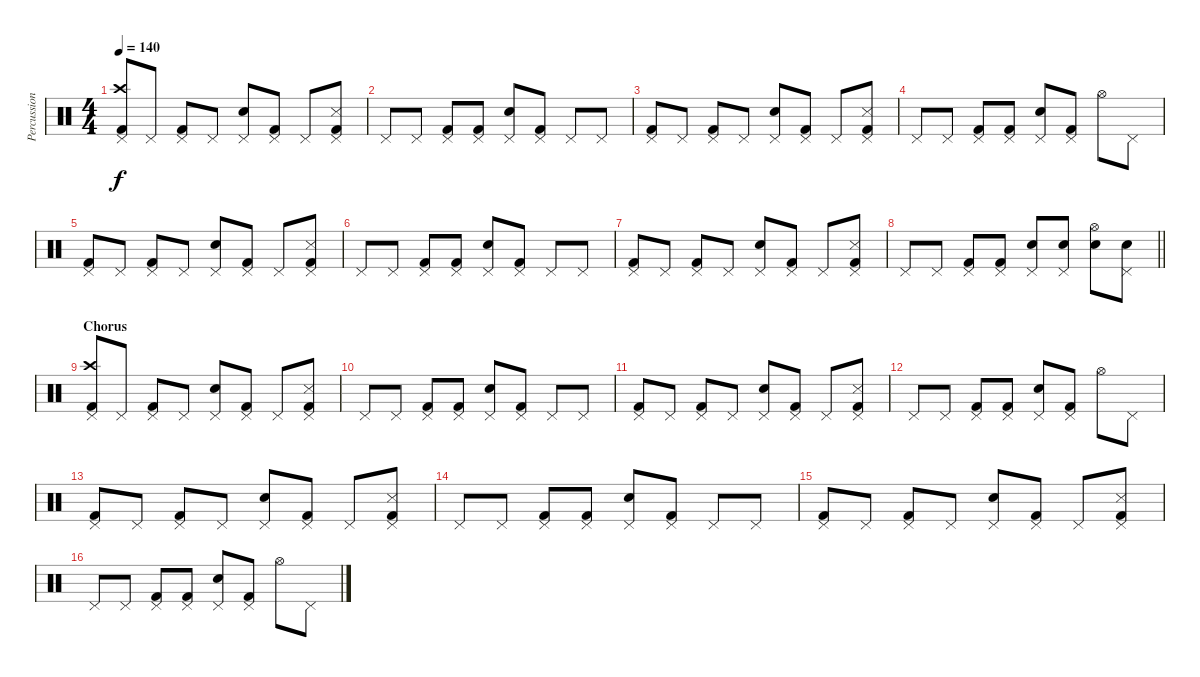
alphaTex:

\track ("Percussion" "Percussion") {instrument percussion}
\staff {score}
\articulation defaults
\ts (4 4)
\tempo 140
\clef neutral
\ks c
("Pedal Hi-Hat (hit)" "Crash high (hit)" "Kick (hit) 2").8{dy f} "Pedal Hi-Hat (hit)".8 ("Pedal Hi-Hat (hit)" "Kick (hit) 2").8 "Pedal Hi-Hat (hit)".8 ("Pedal Hi-Hat (hit)" "Electric Snare (hit)").8 ("Pedal Hi-Hat (hit)" "Kick (hit) 2").8 "Pedal Hi-Hat (hit)".8 ("Snare (side stick) 3" "Pedal Hi-Hat (hit)" "Kick (hit) 2").8 |
"Pedal Hi-Hat (hit)".8 "Pedal Hi-Hat (hit)".8 ("Pedal Hi-Hat (hit)" "Kick (hit) 2").8 ("Pedal Hi-Hat (hit)" "Kick (hit) 2").8 ("Electric Snare (hit)" "Pedal Hi-Hat (hit)").8 ("Pedal Hi-Hat (hit)" "Kick (hit) 2").8 "Pedal Hi-Hat (hit)".8 "Pedal Hi-Hat (hit)".8 |
("Pedal Hi-Hat (hit)" "Kick (hit) 2").8 "Pedal Hi-Hat (hit)".8 ("Pedal Hi-Hat (hit)" "Kick (hit) 2").8 "Pedal Hi-Hat (hit)".8 ("Pedal Hi-Hat (hit)" "Electric Snare (hit)").8 ("Pedal Hi-Hat (hit)" "Kick (hit) 2").8 "Pedal Hi-Hat (hit)".8 ("Snare (side stick) 3" "Pedal Hi-Hat (hit)" "Kick (hit) 2").8 |
"Pedal Hi-Hat (hit)".8 "Pedal Hi-Hat (hit)".8 ("Pedal Hi-Hat (hit)" "Kick (hit) 2").8 ("Pedal Hi-Hat (hit)" "Kick (hit) 2").8 ("Electric Snare (hit)" "Pedal Hi-Hat (hit)").8 ("Pedal Hi-Hat (hit)" "Kick (hit) 2").8 "Hi-Hat (open)".8 "Pedal Hi-Hat (hit)".8 |
("Pedal Hi-Hat (hit)" "Kick (hit) 2").8 "Pedal Hi-Hat (hit)".8 ("Pedal Hi-Hat (hit)" "Kick (hit) 2").8 "Pedal Hi-Hat (hit)".8 ("Pedal Hi-Hat (hit)" "Electric Snare (hit)").8 ("Pedal Hi-Hat (hit)" "Kick (hit) 2").8 "Pedal Hi-Hat (hit)".8 ("Snare (side stick) 3" "Pedal Hi-Hat (hit)" "Kick (hit) 2").8 |
"Pedal Hi-Hat (hit)".8 "Pedal Hi-Hat (hit)".8 ("Pedal Hi-Hat (hit)" "Kick (hit) 2").8 ("Pedal Hi-Hat (hit)" "Kick (hit) 2").8 ("Electric Snare (hit)" "Pedal Hi-Hat (hit)").8 ("Pedal Hi-Hat (hit)" "Kick (hit) 2").8 "Pedal Hi-Hat (hit)".8 "Pedal Hi-Hat (hit)".8 |
("Pedal Hi-Hat (hit)" "Kick (hit) 2").8 "Pedal Hi-Hat (hit)".8 ("Pedal Hi-Hat (hit)" "Kick (hit) 2").8 "Pedal Hi-Hat (hit)".8 ("Pedal Hi-Hat (hit)" "Electric Snare (hit)").8 ("Pedal Hi-Hat (hit)" "Kick (hit) 2").8 "Pedal Hi-Hat (hit)".8 ("Snare (side stick) 3" "Pedal Hi-Hat (hit)" "Kick (hit) 2").8 |
\barLineRight lightlight "Pedal Hi-Hat (hit)".8 "Pedal Hi-Hat (hit)".8
("Pedal Hi-Hat (hit)" "Kick (hit) 2").8 ("Pedal Hi-Hat (hit)" "Kick (hit) 2").8 ("Electric Snare (hit)" "Pedal Hi-Hat (hit)").8 ("Pedal Hi-Hat (hit)" "Electric Snare (hit)").8 ("Hi-Hat (open)" "Electric Snare (hit)").8 ("Pedal Hi-Hat (hit)" "Electric Snare (hit)").8 |
\section ("" "Chorus")
("Pedal Hi-Hat (hit)" "Crash high (hit)" "Kick (hit) 2").8 "Pedal Hi-Hat (hit)".8 ("Pedal Hi-Hat (hit)" "Kick (hit) 2").8 "Pedal Hi-Hat (hit)".8 ("Pedal Hi-Hat (hit)" "Electric Snare (hit)").8 ("Pedal Hi-Hat (hit)" "Kick (hit) 2").8 "Pedal Hi-Hat (hit)".8 ("Snare (side stick) 3" "Pedal Hi-Hat (hit)" "Kick (hit) 2").8 |
"Pedal Hi-Hat (hit)".8 "Pedal Hi-Hat (hit)".8 ("Pedal Hi-Hat (hit)" "Kick (hit) 2").8 ("Pedal Hi-Hat (hit)" "Kick (hit) 2").8 ("Electric Snare (hit)" "Pedal Hi-Hat (hit)").8 ("Pedal Hi-Hat (hit)" "Kick (hit) 2").8 "Pedal Hi-Hat (hit)".8 "Pedal Hi-Hat (hit)".8 |
("Pedal Hi-Hat (hit)" "Kick (hit) 2").8 "Pedal Hi-Hat (hit)".8 ("Pedal Hi-Hat (hit)" "Kick (hit) 2").8 "Pedal Hi-Hat (hit)".8 ("Pedal Hi-Hat (hit)" "Electric Snare (hit)").8 ("Pedal Hi-Hat (hit)" "Kick (hit) 2").8 "Pedal Hi-Hat (hit)".8 ("Snare (side stick) 3" "Pedal Hi-Hat (hit)" "Kick (hit) 2").8 |
"Pedal Hi-Hat (hit)".8 "Pedal Hi-Hat (hit)".8 ("Pedal Hi-Hat (hit)" "Kick (hit) 2").8 ("Pedal Hi-Hat (hit)" "Kick (hit) 2").8 ("Electric Snare (hit)" "Pedal Hi-Hat (hit)").8 ("Pedal Hi-Hat (hit)" "Kick (hit) 2").8 "Hi-Hat (open)".8 "Pedal Hi-Hat (hit)".8 |
("Pedal Hi-Hat (hit)" "Kick (hit) 2").8 "Pedal Hi-Hat (hit)".8 ("Pedal Hi-Hat (hit)" "Kick (hit) 2").8 "Pedal Hi-Hat (hit)".8 ("Pedal Hi-Hat (hit)" "Electric Snare (hit)").8 ("Pedal Hi-Hat (hit)" "Kick (hit) 2").8 "Pedal Hi-Hat (hit)".8 ("Snare (side stick) 3" "Pedal Hi-Hat (hit)" "Kick (hit) 2").8 |
"Pedal Hi-Hat (hit)".8 "Pedal Hi-Hat (hit)".8 ("Pedal Hi-Hat (hit)" "Kick (hit) 2").8 ("Pedal Hi-Hat (hit)" "Kick (hit) 2").8 ("Electric Snare (hit)" "Pedal Hi-Hat (hit)").8 ("Pedal Hi-Hat (hit)" "Kick (hit) 2").8 "Pedal Hi-Hat (hit)".8 "Pedal Hi-Hat (hit)".8 |
("Pedal Hi-Hat (hit)" "Kick (hit) 2").8 "Pedal Hi-Hat (hit)".8 ("Pedal Hi-Hat (hit)" "Kick (hit) 2").8 "Pedal Hi-Hat (hit)".8 ("Pedal Hi-Hat (hit)" "Electric Snare (hit)").8 ("Pedal Hi-Hat (hit)" "Kick (hit) 2").8 "Pedal Hi-Hat (hit)".8 ("Snare (side stick) 3" "Pedal Hi-Hat (hit)" "Kick (hit) 2").8 |
"Pedal Hi-Hat (hit)".8 "Pedal Hi-Hat (hit)".8 ("Pedal Hi-Hat (hit)" "Kick (hit) 2").8 ("Pedal Hi-Hat (hit)" "Kick (hit) 2").8 ("Electric Snare (hit)" "Pedal Hi-Hat (hit)").8 ("Pedal Hi-Hat (hit)" "Kick (hit) 2").8 "Hi-Hat (open)".8 "Pedal Hi-Hat (hit)".8
